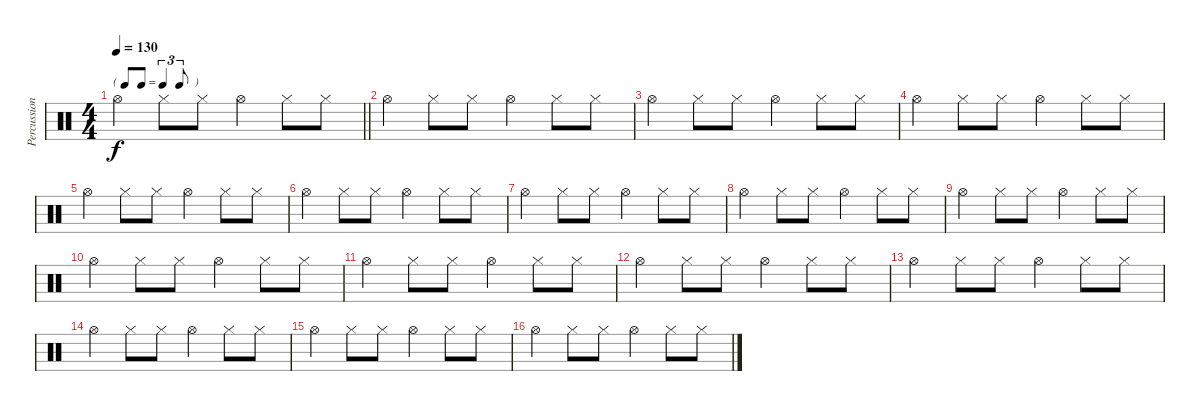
\track ("Percussions" "Percussion") {instrument percussion}
\staff {score}
\articulation defaults
\ts (4 4)
\tf triplet8th
\tempo 130
\clef neutral
\barLineRight lightlight
\ks c "Hi-Hat (open)".4{dy f} "Hi-Hat (closed)".8 "Hi-Hat (closed)".8 "Hi-Hat (open)".4 "Hi-Hat (closed)".8 "Hi-Hat (closed)".8
|
"Hi-Hat (open)".4 "Hi-Hat (closed)".8 "Hi-Hat (closed)".8 "Hi-Hat (open)".4 "Hi-Hat (closed)".8 "Hi-Hat (closed)".8 |
"Hi-Hat (open)".4 "Hi-Hat (closed)".8 "Hi-Hat (closed)".8 "Hi-Hat (open)".4 "Hi-Hat (closed)".8 "Hi-Hat (closed)".8 |
"Hi-Hat (open)".4 "Hi-Hat (closed)".8 "Hi-Hat (closed)".8 "Hi-Hat (open)".4 "Hi-Hat (closed)".8 "Hi-Hat (closed)".8 |
"Hi-Hat (open)".4 "Hi-Hat (closed)".8 "Hi-Hat (closed)".8 "Hi-Hat (open)".4 "Hi-Hat (closed)".8 "Hi-Hat (closed)".8 |
"Hi-Hat (open)".4 "Hi-Hat (closed)".8 "Hi-Hat (closed)".8 "Hi-Hat (open)".4 "Hi-Hat (closed)".8 "Hi-Hat (closed)".8 |
"Hi-Hat (open)".4 "Hi-Hat (closed)".8 "Hi-Hat (closed)".8 "Hi-Hat (open)".4 "Hi-Hat (closed)".8 "Hi-Hat (closed)".8 |
"Hi-Hat (open)".4 "Hi-Hat (closed)".8 "Hi-Hat (closed)".8 "Hi-Hat (open)".4 "Hi-Hat (closed)".8 "Hi-Hat (closed)".8 |
"Hi-Hat (open)".4 "Hi-Hat (closed)".8 "Hi-Hat (closed)".8 "Hi-Hat (open)".4 "Hi-Hat (closed)".8 "Hi-Hat (closed)".8 |
"Hi-Hat (open)".4 "Hi-Hat (closed)".8 "Hi-Hat (closed)".8 "Hi-Hat (open)".4 "Hi-Hat (closed)".8 "Hi-Hat (closed)".8 |
"Hi-Hat (open)".4 "Hi-Hat (closed)".8 "Hi-Hat (closed)".8 "Hi-Hat (open)".4 "Hi-Hat (closed)".8 "Hi-Hat (closed)".8 |
"Hi-Hat (open)".4 "Hi-Hat (closed)".8 "Hi-Hat (closed)".8 "Hi-Hat (open)".4 "Hi-Hat (closed)".8 "Hi-Hat (closed)".8 |
"Hi-Hat (open)".4 "Hi-Hat (closed)".8 "Hi-Hat (closed)".8 "Hi-Hat (open)".4 "Hi-Hat (closed)".8 "Hi-Hat (closed)".8 |
"Hi-Hat (open)".4 "Hi-Hat (closed)".8 "Hi-Hat (closed)".8 "Hi-Hat (open)".4 "Hi-Hat (closed)".8 "Hi-Hat (closed)".8 |
"Hi-Hat (open)".4 "Hi-Hat (closed)".8 "Hi-Hat (closed)".8 "Hi-Hat (open)".4 "Hi-Hat (closed)".8 "Hi-Hat (closed)".8 |
"Hi-Hat (open)".4 "Hi-Hat (closed)".8 "Hi-Hat (closed)".8 "Hi-Hat (open)".4 "Hi-Hat (closed)".8 "Hi-Hat (closed)".8
